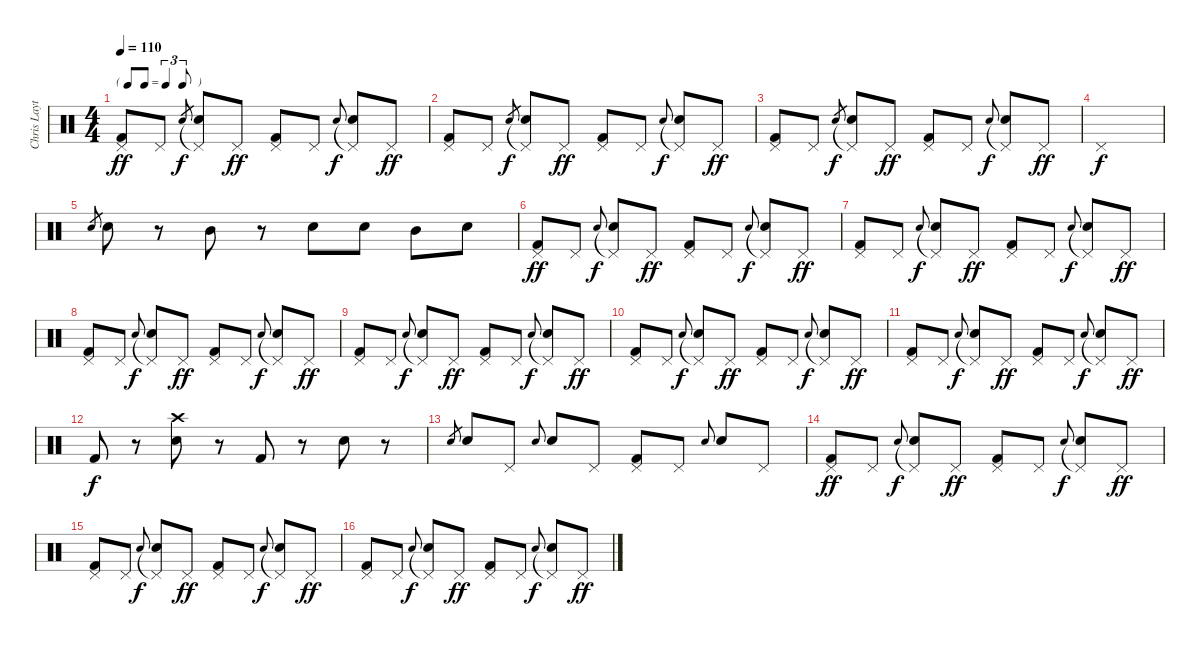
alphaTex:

\track ("Chris Layton" "Chris Layt") {instrument percussion}
\staff {score}
\articulation defaults
\ts (4 4)
\tf triplet8th
\tempo 110
\clef neutral
\ks c
("Pedal Hi-Hat (hit)" "Kick (hit) 2").8{dy ff} "Pedal Hi-Hat (hit)".8 "Snare (hit) 2".8{gr dy f} ("Pedal Hi-Hat (hit)"{t} "Snare (hit) 2").8 "Pedal Hi-Hat (hit)".8{dy ff} ("Pedal Hi-Hat (hit)" "Kick (hit) 2").8 "Pedal Hi-Hat (hit)".8 "Snare (hit) 2".8{gr onbeat dy f} ("Pedal Hi-Hat (hit)"{t} "Snare (hit) 2").8 "Pedal Hi-Hat (hit)".8{dy ff} |
("Pedal Hi-Hat (hit)" "Kick (hit) 2").8 "Pedal Hi-Hat (hit)".8 "Snare (hit) 2".8{gr dy f} ("Pedal Hi-Hat (hit)"{t} "Snare (hit) 2").8 "Pedal Hi-Hat (hit)".8{dy ff} ("Pedal Hi-Hat (hit)" "Kick (hit) 2").8 "Pedal Hi-Hat (hit)".8 "Snare (hit) 2".8{gr onbeat dy f} ("Pedal Hi-Hat (hit)"{t} "Snare (hit) 2").8 "Pedal Hi-Hat (hit)".8{dy ff} |
("Pedal Hi-Hat (hit)" "Kick (hit) 2").8 "Pedal Hi-Hat (hit)".8 "Snare (hit) 2".8{gr dy f} ("Pedal Hi-Hat (hit)"{t} "Snare (hit) 2").8 "Pedal Hi-Hat (hit)".8{dy ff} ("Pedal Hi-Hat (hit)" "Kick (hit) 2").8 "Pedal Hi-Hat (hit)".8 "Snare (hit) 2".8{gr onbeat dy f} ("Pedal Hi-Hat (hit)"{t} "Snare (hit) 2").8 "Pedal Hi-Hat (hit)".8{dy ff} |
"Pedal Hi-Hat (hit)".1{dy f} |
"Snare (hit) 2".8{gr} "Snare (hit) 2".8 r.8 "Mid Tom (hit)".8 r.8 "Snare (hit) 2".8 "Snare (hit) 2".8 "Mid Tom (hit)".8 "Snare (hit) 2".8 |
("Pedal Hi-Hat (hit)" "Kick (hit) 2").8{dy ff} "Pedal Hi-Hat (hit)".8 "Snare (hit) 2".8{gr onbeat dy f} ("Pedal Hi-Hat (hit)"{t} "Snare (hit) 2").8 "Pedal Hi-Hat (hit)".8{dy ff} ("Pedal Hi-Hat (hit)" "Kick (hit) 2").8 "Pedal Hi-Hat (hit)".8 "Snare (hit) 2".8{gr onbeat dy f} ("Pedal Hi-Hat (hit)"{t} "Snare (hit) 2").8 "Pedal Hi-Hat (hit)".8{dy ff} |
("Pedal Hi-Hat (hit)" "Kick (hit) 2").8 "Pedal Hi-Hat (hit)".8 "Snare (hit) 2".8{gr onbeat dy f} ("Pedal Hi-Hat (hit)"{t} "Snare (hit) 2").8 "Pedal Hi-Hat (hit)".8{dy ff} ("Pedal Hi-Hat (hit)" "Kick (hit) 2").8 "Pedal Hi-Hat (hit)".8 "Snare (hit) 2".8{gr onbeat dy f} ("Pedal Hi-Hat (hit)"{t} "Snare (hit) 2").8 "Pedal Hi-Hat (hit)".8{dy ff} |
("Pedal Hi-Hat (hit)" "Kick (hit) 2").8 "Pedal Hi-Hat (hit)".8 "Snare (hit) 2".8{gr onbeat dy f} ("Pedal Hi-Hat (hit)"{t} "Snare (hit) 2").8 "Pedal Hi-Hat (hit)".8{dy ff} ("Pedal Hi-Hat (hit)" "Kick (hit) 2").8 "Pedal Hi-Hat (hit)".8 "Snare (hit) 2".8{gr onbeat dy f} ("Pedal Hi-Hat (hit)"{t} "Snare (hit) 2").8 "Pedal Hi-Hat (hit)".8{dy ff} |
("Pedal Hi-Hat (hit)" "Kick (hit) 2").8 "Pedal Hi-Hat (hit)".8 "Snare (hit) 2".8{gr onbeat dy f} ("Pedal Hi-Hat (hit)"{t} "Snare (hit) 2").8 "Pedal Hi-Hat (hit)".8{dy ff} ("Pedal Hi-Hat (hit)" "Kick (hit) 2").8 "Pedal Hi-Hat (hit)".8 "Snare (hit) 2".8{gr onbeat dy f} ("Pedal Hi-Hat (hit)"{t} "Snare (hit) 2").8 "Pedal Hi-Hat (hit)".8{dy ff} |
("Pedal Hi-Hat (hit)" "Kick (hit) 2").8 "Pedal Hi-Hat (hit)".8 "Snare (hit) 2".8{gr onbeat dy f} ("Pedal Hi-Hat (hit)"{t} "Snare (hit) 2").8 "Pedal Hi-Hat (hit)".8{dy ff} ("Pedal Hi-Hat (hit)" "Kick (hit) 2").8 "Pedal Hi-Hat (hit)".8 "Snare (hit) 2".8{gr onbeat dy f} ("Pedal Hi-Hat (hit)"{t} "Snare (hit) 2").8 "Pedal Hi-Hat (hit)".8{dy ff} |
("Pedal Hi-Hat (hit)" "Kick (hit) 2").8 "Pedal Hi-Hat (hit)".8 "Snare (hit) 2".8{gr onbeat dy f} ("Pedal Hi-Hat (hit)"{t} "Snare (hit) 2").8 "Pedal Hi-Hat (hit)".8{dy ff} ("Pedal Hi-Hat (hit)" "Kick (hit) 2").8 "Pedal Hi-Hat (hit)".8 "Snare (hit) 2".8{gr onbeat dy f} ("Pedal Hi-Hat (hit)"{t} "Snare (hit) 2").8 "Pedal Hi-Hat (hit)".8{dy ff} |
"Kick (hit) 2".8{dy f} r.8 ("Crash high (hit)" "Snare (hit) 2").8 r.8 "Kick (hit) 2".8 r.8 "Snare (hit) 2".8 r.8 |
"Snare (hit) 2".8{gr} "Snare (hit) 2".8 "Pedal Hi-Hat (hit)".8 "Snare (hit) 2".8{gr onbeat} "Snare (hit) 2".8 "Pedal Hi-Hat (hit)".8 ("Pedal Hi-Hat (hit)" "Kick (hit) 2").8 "Pedal Hi-Hat (hit)".8 "Snare (hit) 2".8{gr onbeat} "Snare (hit) 2".8 "Pedal Hi-Hat (hit)".8 |
("Pedal Hi-Hat (hit)" "Kick (hit) 2").8{dy ff} "Pedal Hi-Hat (hit)".8 "Snare (hit) 2".8{gr onbeat dy f} ("Pedal Hi-Hat (hit)"{t} "Snare (hit) 2").8 "Pedal Hi-Hat (hit)".8{dy ff} ("Pedal Hi-Hat (hit)" "Kick (hit) 2").8 "Pedal Hi-Hat (hit)".8 "Snare (hit) 2".8{gr onbeat dy f} ("Pedal Hi-Hat (hit)"{t} "Snare (hit) 2").8 "Pedal Hi-Hat (hit)".8{dy ff} |
("Pedal Hi-Hat (hit)" "Kick (hit) 2").8 "Pedal Hi-Hat (hit)".8 "Snare (hit) 2".8{gr onbeat dy f} ("Pedal Hi-Hat (hit)"{t} "Snare (hit) 2").8 "Pedal Hi-Hat (hit)".8{dy ff} ("Pedal Hi-Hat (hit)" "Kick (hit) 2").8 "Pedal Hi-Hat (hit)".8 "Snare (hit) 2".8{gr onbeat dy f} ("Pedal Hi-Hat (hit)"{t} "Snare (hit) 2").8 "Pedal Hi-Hat (hit)".8{dy ff} |
("Pedal Hi-Hat (hit)" "Kick (hit) 2").8 "Pedal Hi-Hat (hit)".8 "Snare (hit) 2".8{gr onbeat dy f} ("Pedal Hi-Hat (hit)"{t} "Snare (hit) 2").8 "Pedal Hi-Hat (hit)".8{dy ff} ("Pedal Hi-Hat (hit)" "Kick (hit) 2").8 "Pedal Hi-Hat (hit)".8 "Snare (hit) 2".8{gr onbeat dy f} ("Pedal Hi-Hat (hit)"{t} "Snare (hit) 2").8 "Pedal Hi-Hat (hit)".8{dy ff}
